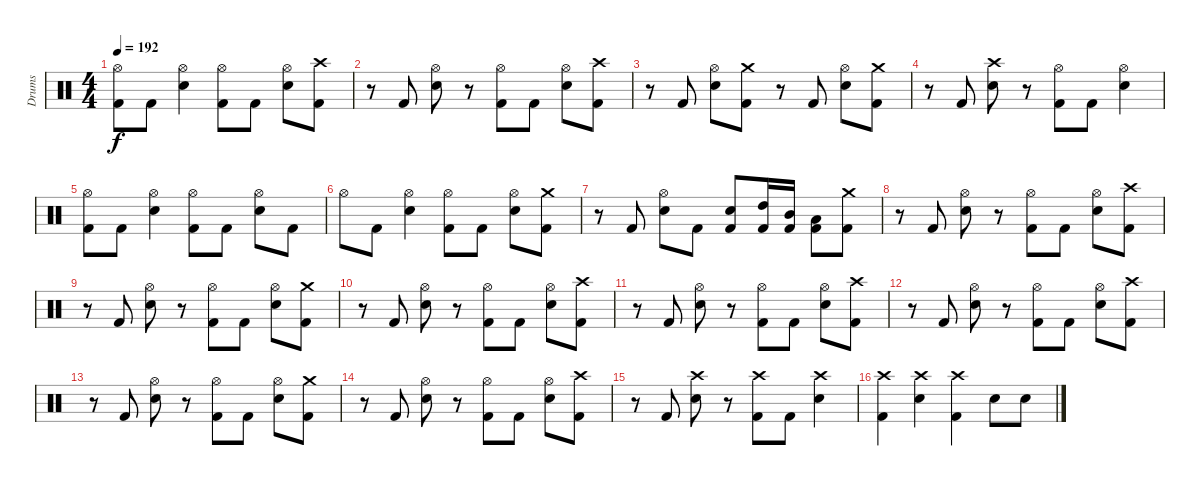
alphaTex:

\track ("Drums" "Drums") {instrument percussion}
\staff {score}
\articulation defaults
\ts (4 4)
\tempo 192
\clef neutral
\ks c
("Kick (hit) 2" "Hi-Hat (open)").8{dy f} "Kick (hit) 2".8 ("Electric Snare (hit)" "Hi-Hat (open)").4 ("Kick (hit) 2" "Hi-Hat (open)").8 "Kick (hit) 2".8 ("Electric Snare (hit)" "Hi-Hat (open)").8 ("Kick (hit) 2" "Crash high (hit)").8 |
r.8 "Kick (hit) 2".8 ("Electric Snare (hit)" "Hi-Hat (open)").8 r.8 ("Kick (hit) 2" "Hi-Hat (open)").8 "Kick (hit) 2".8 ("Electric Snare (hit)" "Hi-Hat (open)").8 ("Kick (hit) 2" "Crash high (hit)").8 |
r.8 "Kick (hit) 2".8 ("Electric Snare (hit)" "Hi-Hat (open)").8 ("Kick (hit) 2" "Crash medium (hit)").8 r.8 "Kick (hit) 2".8 ("Electric Snare (hit)" "Hi-Hat (open)").8 ("Kick (hit) 2" "Crash medium (hit)").8 |
r.8 "Kick (hit) 2".8 ("Electric Snare (hit)" "Crash high (hit)").8 r.8 ("Kick (hit) 2" "Hi-Hat (open)").8 "Kick (hit) 2".8 ("Electric Snare (hit)" "Hi-Hat (open)").4 |
("Kick (hit) 2" "Hi-Hat (open)").8 "Kick (hit) 2".8 ("Electric Snare (hit)" "Hi-Hat (open)").4 ("Kick (hit) 2" "Hi-Hat (open)").8 "Kick (hit) 2".8 ("Electric Snare (hit)" "Hi-Hat (open)").8 "Kick (hit) 2".8 |
"Hi-Hat (open)".8 "Kick (hit) 2".8 ("Electric Snare (hit)" "Hi-Hat (open)").4 ("Kick (hit) 2" "Hi-Hat (open)").8 "Kick (hit) 2".8 ("Electric Snare (hit)" "Hi-Hat (open)").8 ("Kick (hit) 2" "Crash medium (hit)").8 |
r.8 "Kick (hit) 2".8 ("Electric Snare (hit)" "Hi-Hat (open)").8 "Kick (hit) 2".8 ("Kick (hit) 2" "Electric Snare (hit)").8 ("Kick (hit) 2" "High Tom (hit)").16 ("Kick (hit) 2" "Mid Tom (hit)").16 ("Kick (hit) 2" "Low Tom (hit)").8 ("Kick (hit) 2" "Crash medium (hit)").8 |
r.8 "Kick (hit) 2".8 ("Electric Snare (hit)" "Hi-Hat (open)").8 r.8 ("Kick (hit) 2" "Hi-Hat (open)").8 "Kick (hit) 2".8 ("Electric Snare (hit)" "Hi-Hat (open)").8 ("Kick (hit) 2" "Crash high (hit)").8 |
r.8 "Kick (hit) 2".8 ("Electric Snare (hit)" "Hi-Hat (open)").8 r.8 ("Kick (hit) 2" "Hi-Hat (open)").8 "Kick (hit) 2".8 ("Electric Snare (hit)" "Hi-Hat (open)").8 ("Kick (hit) 2" "Crash medium (hit)").8 |
r.8 "Kick (hit) 2".8 ("Electric Snare (hit)" "Hi-Hat (open)").8 r.8 ("Kick (hit) 2" "Hi-Hat (open)").8 "Kick (hit) 2".8 ("Electric Snare (hit)" "Hi-Hat (open)").8 ("Kick (hit) 2" "Crash high (hit)").8 |
r.8 "Kick (hit) 2".8 ("Electric Snare (hit)" "Hi-Hat (open)").8 r.8 ("Kick (hit) 2" "Hi-Hat (open)").8 "Kick (hit) 2".8 ("Electric Snare (hit)" "Hi-Hat (open)").8 ("Kick (hit) 2" "Crash high (hit)").8 |
r.8 "Kick (hit) 2".8 ("Electric Snare (hit)" "Hi-Hat (open)").8 r.8 ("Kick (hit) 2" "Hi-Hat (open)").8 "Kick (hit) 2".8 ("Electric Snare (hit)" "Hi-Hat (open)").8 ("Kick (hit) 2" "Crash high (hit)").8 |
r.8 "Kick (hit) 2".8 ("Electric Snare (hit)" "Hi-Hat (open)").8 r.8 ("Kick (hit) 2" "Hi-Hat (open)").8 "Kick (hit) 2".8 ("Electric Snare (hit)" "Hi-Hat (open)").8 ("Kick (hit) 2" "Crash medium (hit)").8 |
r.8 "Kick (hit) 2".8 ("Electric Snare (hit)" "Hi-Hat (open)").8 r.8 ("Kick (hit) 2" "Hi-Hat (open)").8 "Kick (hit) 2".8 ("Electric Snare (hit)" "Hi-Hat (open)").8 ("Kick (hit) 2" "Crash high (hit)").8 |
r.8 "Kick (hit) 2".8 ("Electric Snare (hit)" "Crash high (hit)").8 r.8 ("Kick (hit) 2" "Crash high (hit)").8 "Kick (hit) 2".8 ("Electric Snare (hit)" "Crash high (hit)").4 |
("Kick (hit) 2" "Crash high (hit)").4 ("Electric Snare (hit)" "Crash high (hit)").4 ("Kick (hit) 2" "Crash high (hit)").4 "Electric Snare (hit)".8 "Electric Snare (hit)".8
